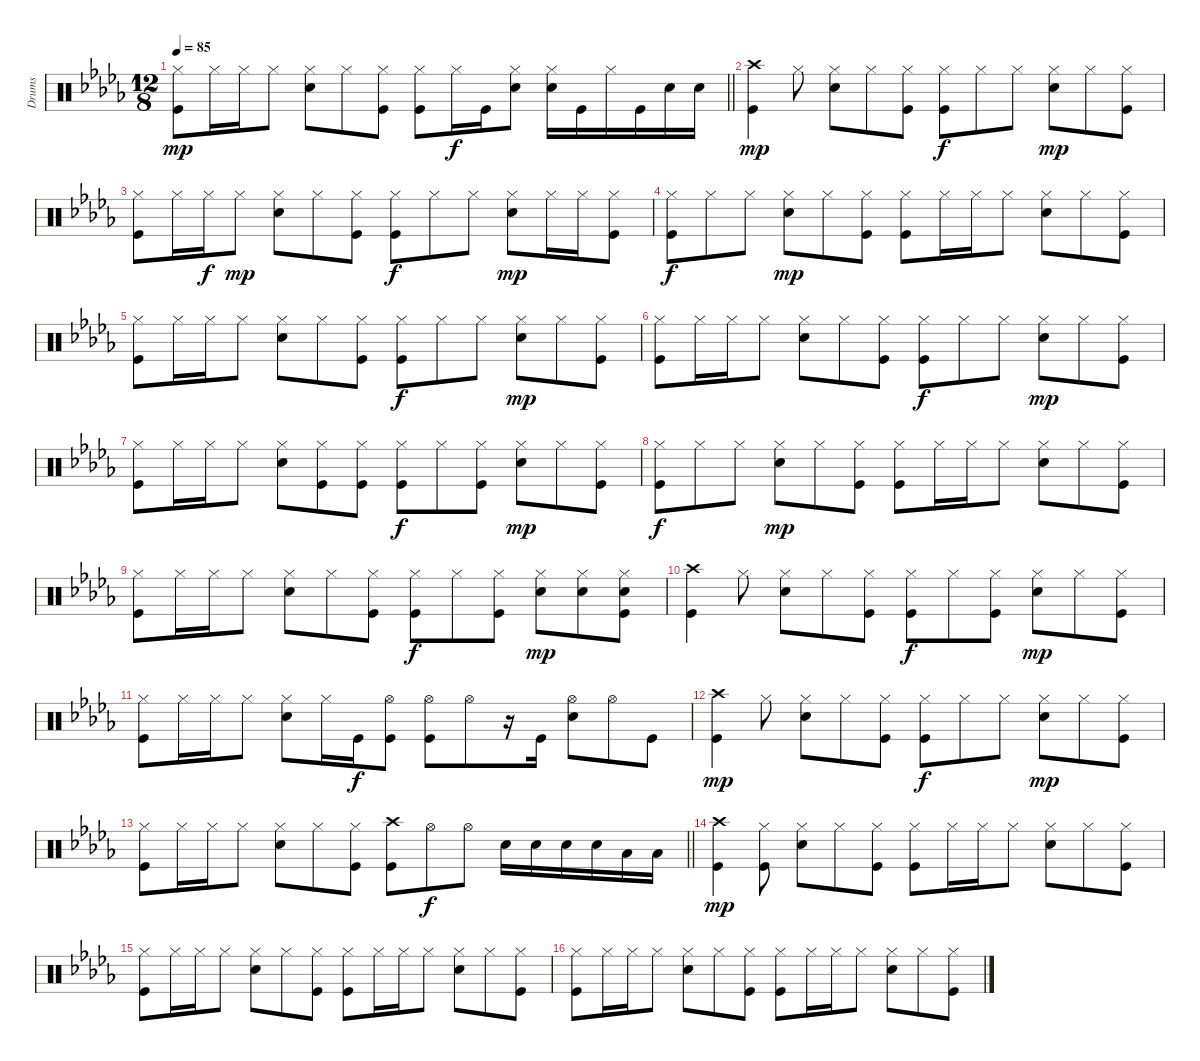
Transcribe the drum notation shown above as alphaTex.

\track ("Drums" "Drums") {instrument percussion}
\staff {score}
\articulation defaults
\ts (12 8)
\tempo 85
\clef neutral
\barLineRight lightlight
\ks bbminor
("Hi-Hat (closed)" "Kick (hit)").8{dy mp} "Hi-Hat (closed)".16 "Hi-Hat (closed)".16 "Hi-Hat (closed)".8 ("Hi-Hat (closed)" "Snare (hit) 2").8 "Hi-Hat (closed)".8 ("Hi-Hat (closed)" "Kick (hit)").8 ("Hi-Hat (closed)" "Kick (hit)").8 "Hi-Hat (closed)".16{dy f} "Kick (hit)".16 ("Hi-Hat (closed)" "Snare (hit) 2").8 ("Hi-Hat (closed)" "Snare (hit) 2").16 "Kick (hit)".16 "Hi-Hat (closed)".16 "Kick (hit)".16 "Snare (hit) 2".16 "Snare (hit) 2".16 |
("Crash high (hit)" "Kick (hit)").4{dy mp} "Hi-Hat (closed)".8 ("Hi-Hat (closed)" "Snare (hit) 2").8 "Hi-Hat (closed)".8 ("Hi-Hat (closed)" "Kick (hit)").8 ("Hi-Hat (closed)" "Kick (hit)").8{dy f} "Hi-Hat (closed)".8 "Hi-Hat (closed)".8 ("Hi-Hat (closed)" "Snare (hit) 2").8{dy mp} "Hi-Hat (closed)".8 ("Hi-Hat (closed)" "Kick (hit)").8 |
("Hi-Hat (closed)" "Kick (hit)").8 "Hi-Hat (closed)".16 "Hi-Hat (closed)".16{dy f} "Hi-Hat (closed)".8{dy mp} ("Hi-Hat (closed)" "Snare (hit) 2").8 "Hi-Hat (closed)".8 ("Hi-Hat (closed)" "Kick (hit)").8 ("Hi-Hat (closed)" "Kick (hit)").8{dy f} "Hi-Hat (closed)".8 "Hi-Hat (closed)".8 ("Hi-Hat (closed)" "Snare (hit) 2").8{dy mp} "Hi-Hat (closed)".16 "Hi-Hat (closed)".16 ("Hi-Hat (closed)" "Kick (hit)").8 |
("Hi-Hat (closed)" "Kick (hit)").8{dy f} "Hi-Hat (closed)".8 "Hi-Hat (closed)".8 ("Hi-Hat (closed)" "Snare (hit) 2").8{dy mp} "Hi-Hat (closed)".8 ("Hi-Hat (closed)" "Kick (hit)").8 ("Hi-Hat (closed)" "Kick (hit)").8 "Hi-Hat (closed)".16 "Hi-Hat (closed)".16 "Hi-Hat (closed)".8 ("Hi-Hat (closed)" "Snare (hit) 2").8 "Hi-Hat (closed)".8 ("Hi-Hat (closed)" "Kick (hit)").8 |
("Hi-Hat (closed)" "Kick (hit)").8 "Hi-Hat (closed)".16 "Hi-Hat (closed)".16 "Hi-Hat (closed)".8 ("Hi-Hat (closed)" "Snare (hit) 2").8 "Hi-Hat (closed)".8 ("Hi-Hat (closed)" "Kick (hit)").8 ("Hi-Hat (closed)" "Kick (hit)").8{dy f} "Hi-Hat (closed)".8 "Hi-Hat (closed)".8 ("Hi-Hat (closed)" "Snare (hit) 2").8{dy mp} "Hi-Hat (closed)".8 ("Hi-Hat (closed)" "Kick (hit)").8 |
("Hi-Hat (closed)" "Kick (hit)").8 "Hi-Hat (closed)".16 "Hi-Hat (closed)".16 "Hi-Hat (closed)".8 ("Hi-Hat (closed)" "Snare (hit) 2").8 "Hi-Hat (closed)".8 ("Hi-Hat (closed)" "Kick (hit)").8 ("Hi-Hat (closed)" "Kick (hit)").8{dy f} "Hi-Hat (closed)".8 "Hi-Hat (closed)".8 ("Hi-Hat (closed)" "Snare (hit) 2").8{dy mp} "Hi-Hat (closed)".8 ("Hi-Hat (closed)" "Kick (hit)").8 |
("Hi-Hat (closed)" "Kick (hit)").8 "Hi-Hat (closed)".16 "Hi-Hat (closed)".16 "Hi-Hat (closed)".8 ("Hi-Hat (closed)" "Snare (hit) 2").8 ("Hi-Hat (closed)" "Kick (hit)").8 ("Hi-Hat (closed)" "Kick (hit)").8 ("Hi-Hat (closed)" "Kick (hit)").8{dy f} "Hi-Hat (closed)".8 ("Hi-Hat (closed)" "Kick (hit)").8 ("Hi-Hat (closed)" "Snare (hit) 2").8{dy mp} "Hi-Hat (closed)".8 ("Hi-Hat (closed)" "Kick (hit)").8 |
("Hi-Hat (closed)" "Kick (hit)").8{dy f} "Hi-Hat (closed)".8 "Hi-Hat (closed)".8 ("Hi-Hat (closed)" "Snare (hit) 2").8{dy mp} "Hi-Hat (closed)".8 ("Hi-Hat (closed)" "Kick (hit)").8 ("Hi-Hat (closed)" "Kick (hit)").8 "Hi-Hat (closed)".16 "Hi-Hat (closed)".16 "Hi-Hat (closed)".8 ("Hi-Hat (closed)" "Snare (hit) 2").8 "Hi-Hat (closed)".8 ("Hi-Hat (closed)" "Kick (hit)").8 |
("Hi-Hat (closed)" "Kick (hit)").8 "Hi-Hat (closed)".16 "Hi-Hat (closed)".16 "Hi-Hat (closed)".8 ("Hi-Hat (closed)" "Snare (hit) 2").8 "Hi-Hat (closed)".8 ("Hi-Hat (closed)" "Kick (hit)").8 ("Hi-Hat (closed)" "Kick (hit)").8{dy f} "Hi-Hat (closed)".8 ("Hi-Hat (closed)" "Kick (hit)").8 ("Hi-Hat (closed)" "Snare (hit) 2").8{dy mp} ("Hi-Hat (closed)" "Snare (hit) 2").8 ("Hi-Hat (closed)" "Snare (hit) 2" "Kick (hit)").8 |
("Crash high (hit)" "Kick (hit)").4 "Hi-Hat (closed)".8 ("Hi-Hat (closed)" "Snare (hit) 2").8 "Hi-Hat (closed)".8 ("Hi-Hat (closed)" "Kick (hit)").8 ("Hi-Hat (closed)" "Kick (hit)").8{dy f} "Hi-Hat (closed)".8 ("Hi-Hat (closed)" "Kick (hit)").8 ("Hi-Hat (closed)" "Snare (hit) 2").8{dy mp} "Hi-Hat (closed)".8 ("Hi-Hat (closed)" "Kick (hit)").8 |
("Hi-Hat (closed)" "Kick (hit)").8 "Hi-Hat (closed)".16 "Hi-Hat (closed)".16 "Hi-Hat (closed)".8 ("Hi-Hat (closed)" "Snare (hit) 2").8 "Hi-Hat (closed)".16 "Kick (hit)".16{dy f} ("Hi-Hat (open)" "Kick (hit)").8 ("Hi-Hat (open)" "Kick (hit)").8 "Hi-Hat (open)".8 r.16 "Kick (hit)".16 ("Hi-Hat (open)" "Snare (hit) 2").8 "Hi-Hat (open)".8 "Kick (hit)".8 |
("Crash high (hit)" "Kick (hit)").4{dy mp} "Hi-Hat (closed)".8 ("Hi-Hat (closed)" "Snare (hit) 2").8 "Hi-Hat (closed)".8 ("Hi-Hat (closed)" "Kick (hit)").8 ("Hi-Hat (closed)" "Kick (hit)").8{dy f} "Hi-Hat (closed)".8 "Hi-Hat (closed)".8 ("Hi-Hat (closed)" "Snare (hit) 2").8{dy mp} "Hi-Hat (closed)".8 ("Hi-Hat (closed)" "Kick (hit)").8 |
\barLineRight lightlight
("Hi-Hat (closed)" "Kick (hit)").8 "Hi-Hat (closed)".16 "Hi-Hat (closed)".16 "Hi-Hat (closed)".8 ("Hi-Hat (closed)" "Snare (hit) 2").8 "Hi-Hat (closed)".8 ("Hi-Hat (closed)" "Kick (hit)").8 ("Crash high (hit)" "Kick (hit)").8 "Hi-Hat (open)".8{dy f} "Hi-Hat (open)".8 "Snare (hit) 2".16 "Snare (hit) 2".16 "Snare (hit) 2".16 "Snare (hit) 2".16 "Low Tom (hit)".16 "Low Tom (hit)".16 |
("Crash high (hit)" "Kick (hit)").4{dy mp} ("Hi-Hat (closed)" "Kick (hit)").8 ("Hi-Hat (closed)" "Snare (hit) 2").8 "Hi-Hat (closed)".8 ("Hi-Hat (closed)" "Kick (hit)").8 ("Hi-Hat (closed)" "Kick (hit)").8 "Hi-Hat (closed)".16 "Hi-Hat (closed)".16 "Hi-Hat (closed)".8 ("Hi-Hat (closed)" "Snare (hit) 2").8 "Hi-Hat (closed)".8 ("Hi-Hat (closed)" "Kick (hit)").8 |
("Hi-Hat (closed)" "Kick (hit)").8 "Hi-Hat (closed)".16 "Hi-Hat (closed)".16 "Hi-Hat (closed)".8 ("Hi-Hat (closed)" "Snare (hit) 2").8 "Hi-Hat (closed)".8 ("Hi-Hat (closed)" "Kick (hit)").8 ("Hi-Hat (closed)" "Kick (hit)").8 "Hi-Hat (closed)".16 "Hi-Hat (closed)".16 "Hi-Hat (closed)".8 ("Hi-Hat (closed)" "Snare (hit) 2").8 "Hi-Hat (closed)".8 ("Hi-Hat (closed)" "Kick (hit)").8 |
("Hi-Hat (closed)" "Kick (hit)").8 "Hi-Hat (closed)".16 "Hi-Hat (closed)".16 "Hi-Hat (closed)".8 ("Hi-Hat (closed)" "Snare (hit) 2").8 "Hi-Hat (closed)".8 ("Hi-Hat (closed)" "Kick (hit)").8 ("Hi-Hat (closed)" "Kick (hit)").8 "Hi-Hat (closed)".16 "Hi-Hat (closed)".16 "Hi-Hat (closed)".8 ("Hi-Hat (closed)" "Snare (hit) 2").8 "Hi-Hat (closed)".8 ("Hi-Hat (closed)" "Kick (hit)").8
